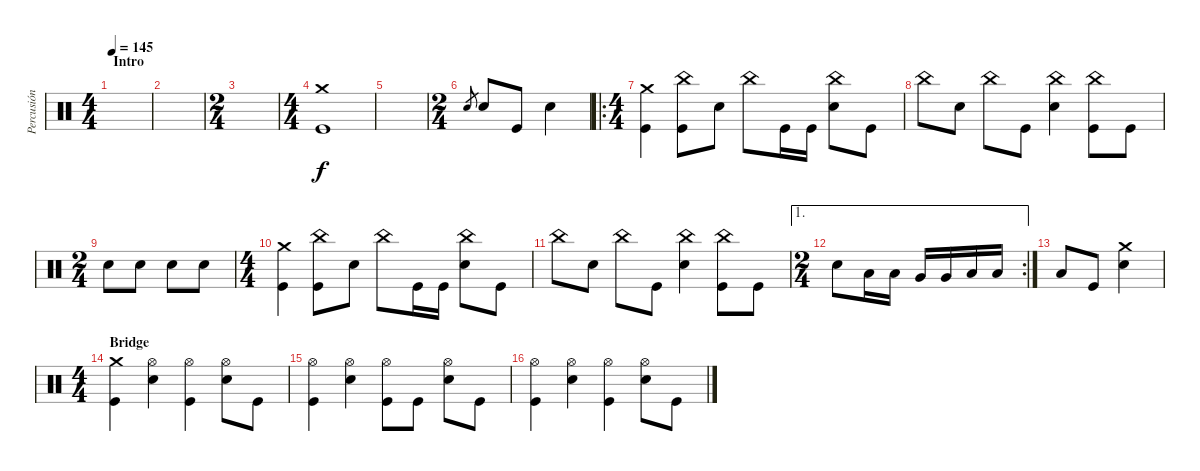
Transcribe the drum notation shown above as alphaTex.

\track ("Percusión" "Percusión") {instrument percussion}
\staff {score}
\articulation defaults
\ts (4 4)
\section ("" "Intro")
\tempo 145
\clef neutral
\ks c
|
|
\ts (2 4)
|
\ts (4 4)
("Crash medium (hit)" "Kick (hit)").1 |
|
\ts (2 4)
"Snare (hit) 2".8{gr} "Snare (hit) 2".8 "Kick (hit)".8 "Snare (hit) 2".4 |
\ro
\ts (4 4)
("Crash medium (hit)" "Kick (hit)").4 ("China (hit)" "Kick (hit)").8 "Snare (hit) 2".8 "China (hit)".8 "Kick (hit)".16 "Kick (hit)".16 ("China (hit)" "Snare (hit) 2").8 "Kick (hit)".8 |
"China (hit)".8 "Snare (hit) 2".8 "China (hit)".8 "Kick (hit)".8 ("China (hit)" "Snare (hit) 2").4 ("China (hit)" "Kick (hit)").8 "Kick (hit)".8 |
\ts (2 4)
"Snare (hit) 2".8 "Snare (hit) 2".8 "Snare (hit) 2".8 "Snare (hit) 2".8 |
\ts (4 4)
("Crash medium (hit)" "Kick (hit)").4 ("China (hit)" "Kick (hit)").8 "Snare (hit) 2".8 "China (hit)".8 "Kick (hit)".16 "Kick (hit)".16 ("China (hit)" "Snare (hit) 2").8 "Kick (hit)".8 |
"China (hit)".8 "Snare (hit) 2".8 "China (hit)".8 "Kick (hit)".8 ("China (hit)" "Snare (hit) 2").4 ("China (hit)" "Kick (hit)").8 "Kick (hit)".8 |
\ae 1
\rc 2
\ts (2 4)
"Snare (hit) 2".8 "Low Tom (hit)".16 "Low Tom (hit)".16 "Very Low Tom (hit)".16 "Very Low Tom (hit)".16 "Low Floor Tom (hit)".16 "Low Floor Tom (hit)".16 |
"Low Tom (hit)".8 "Kick (hit)".8 ("Crash medium (hit)" "Snare (hit) 2").4 |
\ts (4 4)
\section ("" "Bridge")
("Crash medium (hit)" "Kick (hit)").4 ("Hi-Hat (open)" "Snare (hit) 2").4 ("Hi-Hat (open)" "Kick (hit)").4 ("Hi-Hat (open)" "Snare (hit) 2").8 "Kick (hit)".8 |
("Hi-Hat (open)" "Kick (hit)").4 ("Hi-Hat (open)" "Snare (hit) 2").4 ("Hi-Hat (open)" "Kick (hit)").8 "Kick (hit)".8 ("Hi-Hat (open)" "Snare (hit) 2").8 "Kick (hit)".8 |
("Hi-Hat (open)" "Kick (hit)").4 ("Hi-Hat (open)" "Snare (hit) 2").4 ("Hi-Hat (open)" "Kick (hit)").4 ("Hi-Hat (open)" "Snare (hit) 2").8 "Kick (hit)".8
